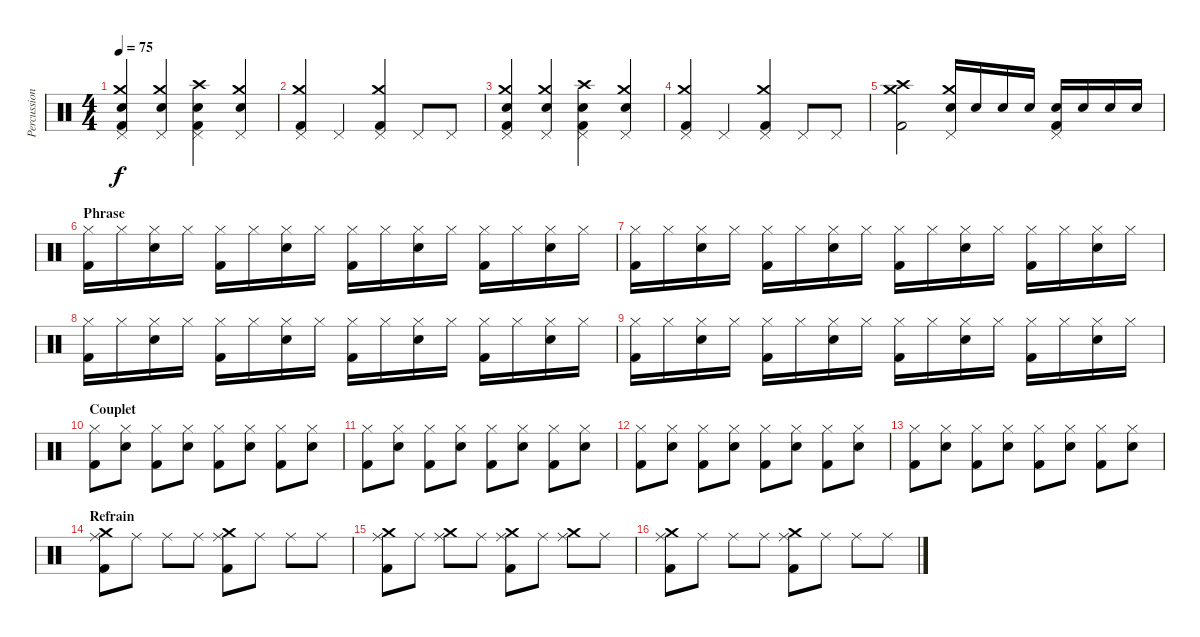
\track ("Percussions" "Percussion") {instrument percussion}
\staff {score}
\articulation defaults
\ts (4 4)
\tempo 75
\clef neutral
\ks c
("Pedal Hi-Hat (hit)" "Crash medium (hit)" "Electric Snare (hit)" "Kick (hit) 2").4{dy f} ("Pedal Hi-Hat (hit)" "Crash medium (hit)" "Electric Snare (hit)").4 ("Pedal Hi-Hat (hit)" "Crash high (hit)" "Electric Snare (hit)" "Kick (hit) 2").4 ("Pedal Hi-Hat (hit)" "Crash medium (hit)" "Electric Snare (hit)").4 |
("Pedal Hi-Hat (hit)" "Crash medium (hit)" "Kick (hit) 2").4 "Pedal Hi-Hat (hit)".4 ("Pedal Hi-Hat (hit)" "Crash medium (hit)" "Kick (hit) 2").4 "Pedal Hi-Hat (hit)".8 "Pedal Hi-Hat (hit)".8 |
("Pedal Hi-Hat (hit)" "Crash medium (hit)" "Electric Snare (hit)" "Kick (hit) 2").4 ("Pedal Hi-Hat (hit)" "Crash medium (hit)" "Electric Snare (hit)").4 ("Pedal Hi-Hat (hit)" "Crash high (hit)" "Electric Snare (hit)" "Kick (hit) 2").4 ("Pedal Hi-Hat (hit)" "Crash medium (hit)" "Electric Snare (hit)").4 |
("Pedal Hi-Hat (hit)" "Crash medium (hit)" "Kick (hit) 2").4 "Pedal Hi-Hat (hit)".4 ("Pedal Hi-Hat (hit)" "Crash medium (hit)" "Kick (hit) 2").4 "Pedal Hi-Hat (hit)".8 "Pedal Hi-Hat (hit)".8 |
("Crash medium (hit)" "Crash high (hit)" "Kick (hit) 2").2 ("Pedal Hi-Hat (hit)" "Crash medium (hit)" "Electric Snare (hit)").16 "Electric Snare (hit)".16 "Electric Snare (hit)".16 "Electric Snare (hit)".16 ("Pedal Hi-Hat (hit)" "Electric Snare (hit)" "Kick (hit) 2").16 "Electric Snare (hit)".16 "Electric Snare (hit)".16 "Electric Snare (hit)".16 |
\section ("" "Phrase")
("Hi-Hat (closed)" "Kick (hit) 2").16 "Hi-Hat (closed)".16 ("Hi-Hat (closed)" "Electric Snare (hit)").16 "Hi-Hat (closed)".16 ("Hi-Hat (closed)" "Kick (hit) 2").16 "Hi-Hat (closed)".16 ("Hi-Hat (closed)" "Electric Snare (hit)").16 "Hi-Hat (closed)".16 ("Hi-Hat (closed)" "Kick (hit) 2").16 "Hi-Hat (closed)".16 ("Hi-Hat (closed)" "Electric Snare (hit)").16 "Hi-Hat (closed)".16 ("Hi-Hat (closed)" "Kick (hit) 2").16 "Hi-Hat (closed)".16 ("Hi-Hat (closed)" "Electric Snare (hit)").16 "Hi-Hat (closed)".16 |
("Hi-Hat (closed)" "Kick (hit) 2").16 "Hi-Hat (closed)".16 ("Hi-Hat (closed)" "Electric Snare (hit)").16 "Hi-Hat (closed)".16 ("Hi-Hat (closed)" "Kick (hit) 2").16 "Hi-Hat (closed)".16 ("Hi-Hat (closed)" "Electric Snare (hit)").16 "Hi-Hat (closed)".16 ("Hi-Hat (closed)" "Kick (hit) 2").16 "Hi-Hat (closed)".16 ("Hi-Hat (closed)" "Electric Snare (hit)").16 "Hi-Hat (closed)".16 ("Hi-Hat (closed)" "Kick (hit) 2").16 "Hi-Hat (closed)".16 ("Hi-Hat (closed)" "Electric Snare (hit)").16 "Hi-Hat (closed)".16 |
("Hi-Hat (closed)" "Kick (hit) 2").16 "Hi-Hat (closed)".16 ("Hi-Hat (closed)" "Electric Snare (hit)").16 "Hi-Hat (closed)".16 ("Hi-Hat (closed)" "Kick (hit) 2").16 "Hi-Hat (closed)".16 ("Hi-Hat (closed)" "Electric Snare (hit)").16 "Hi-Hat (closed)".16 ("Hi-Hat (closed)" "Kick (hit) 2").16 "Hi-Hat (closed)".16 ("Hi-Hat (closed)" "Electric Snare (hit)").16 "Hi-Hat (closed)".16 ("Hi-Hat (closed)" "Kick (hit) 2").16 "Hi-Hat (closed)".16 ("Hi-Hat (closed)" "Electric Snare (hit)").16 "Hi-Hat (closed)".16 |
("Hi-Hat (closed)" "Kick (hit) 2").16 "Hi-Hat (closed)".16 ("Hi-Hat (closed)" "Electric Snare (hit)").16 "Hi-Hat (closed)".16 ("Hi-Hat (closed)" "Kick (hit) 2").16 "Hi-Hat (closed)".16 ("Hi-Hat (closed)" "Electric Snare (hit)").16 "Hi-Hat (closed)".16 ("Hi-Hat (closed)" "Kick (hit) 2").16 "Hi-Hat (closed)".16 ("Hi-Hat (closed)" "Electric Snare (hit)").16 "Hi-Hat (closed)".16 ("Hi-Hat (closed)" "Kick (hit) 2").16 "Hi-Hat (closed)".16 ("Hi-Hat (closed)" "Electric Snare (hit)").16 "Hi-Hat (closed)".16 |
\section ("" "Couplet")
("Hi-Hat (closed)" "Kick (hit) 2").8 ("Hi-Hat (closed)" "Electric Snare (hit)").8 ("Hi-Hat (closed)" "Kick (hit) 2").8 ("Hi-Hat (closed)" "Electric Snare (hit)").8 ("Hi-Hat (closed)" "Kick (hit) 2").8 ("Hi-Hat (closed)" "Electric Snare (hit)").8 ("Hi-Hat (closed)" "Kick (hit) 2").8 ("Hi-Hat (closed)" "Electric Snare (hit)").8 |
("Hi-Hat (closed)" "Kick (hit) 2").8 ("Hi-Hat (closed)" "Electric Snare (hit)").8 ("Hi-Hat (closed)" "Kick (hit) 2").8 ("Hi-Hat (closed)" "Electric Snare (hit)").8 ("Hi-Hat (closed)" "Kick (hit) 2").8 ("Hi-Hat (closed)" "Electric Snare (hit)").8 ("Hi-Hat (closed)" "Kick (hit) 2").8 ("Hi-Hat (closed)" "Electric Snare (hit)").8 |
("Hi-Hat (closed)" "Kick (hit) 2").8 ("Hi-Hat (closed)" "Electric Snare (hit)").8 ("Hi-Hat (closed)" "Kick (hit) 2").8 ("Hi-Hat (closed)" "Electric Snare (hit)").8 ("Hi-Hat (closed)" "Kick (hit) 2").8 ("Hi-Hat (closed)" "Electric Snare (hit)").8 ("Hi-Hat (closed)" "Kick (hit) 2").8 ("Hi-Hat (closed)" "Electric Snare (hit)").8 |
("Hi-Hat (closed)" "Kick (hit) 2").8 ("Hi-Hat (closed)" "Electric Snare (hit)").8 ("Hi-Hat (closed)" "Kick (hit) 2").8 ("Hi-Hat (closed)" "Electric Snare (hit)").8 ("Hi-Hat (closed)" "Kick (hit) 2").8 ("Hi-Hat (closed)" "Electric Snare (hit)").8 ("Hi-Hat (closed)" "Kick (hit) 2").8 ("Hi-Hat (closed)" "Electric Snare (hit)").8 |
\section ("" "Refrain")
("Ride (middle)" "Crash medium (hit)" "Kick (hit) 2").8 "Ride (middle)".8 "Ride (middle)".8 "Ride (middle)".8 ("Ride (middle)" "Crash medium (hit)" "Kick (hit) 2").8 "Ride (middle)".8 "Ride (middle)".8 "Ride (middle)".8 |
("Ride (middle)" "Crash medium (hit)" "Kick (hit) 2").8 "Ride (middle)".8 ("Ride (middle)" "Crash medium (hit)").8 "Ride (middle)".8 ("Ride (middle)" "Crash medium (hit)" "Kick (hit) 2").8 "Ride (middle)".8 ("Ride (middle)" "Crash medium (hit)").8 "Ride (middle)".8 |
("Ride (middle)" "Crash medium (hit)" "Kick (hit) 2").8 "Ride (middle)".8 "Ride (middle)".8 "Ride (middle)".8 ("Ride (middle)" "Crash medium (hit)" "Kick (hit) 2").8 "Ride (middle)".8 "Ride (middle)".8 "Ride (middle)".8
